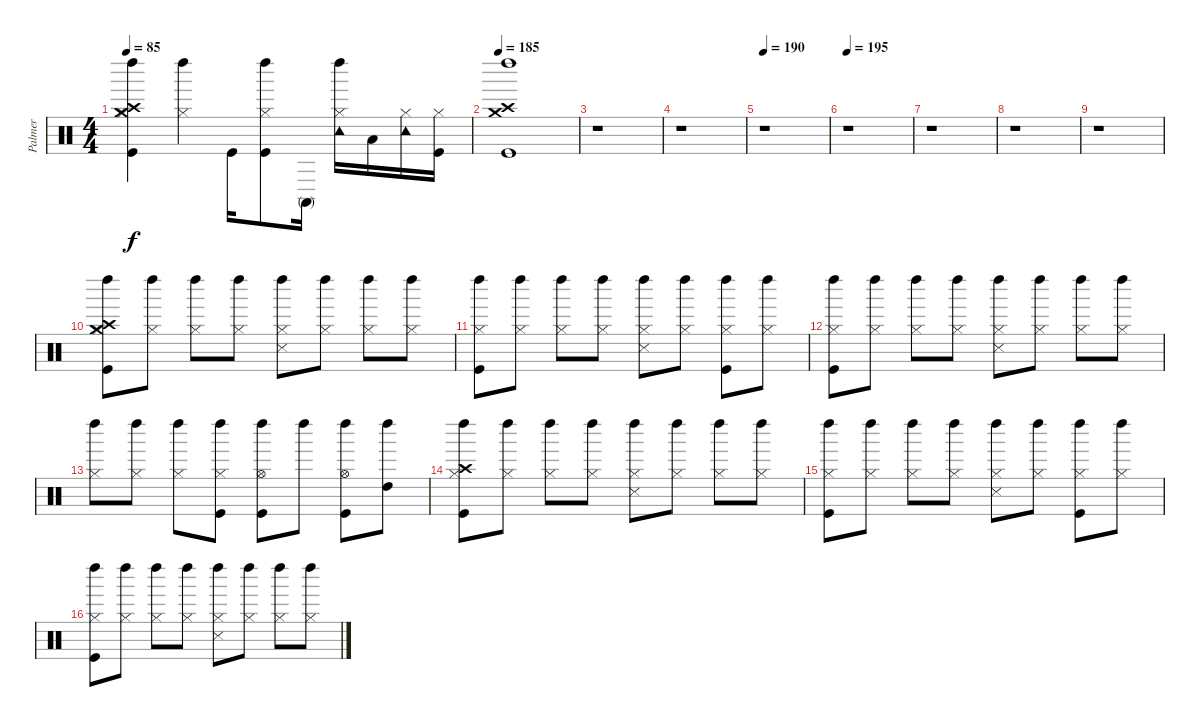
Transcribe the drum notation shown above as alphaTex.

\track ("Palmer" "Palmer") {instrument percussion}
\staff {score}
\articulation defaults
\ts (4 4)
\tempo 85
\clef neutral
\ks c
("Crash medium (hit)" "Crash high (hit)" "Kick (hit)" "Hi-Hat (closed)" "Left Maraca (hit)").4{dy f} ("Hi-Hat (closed)" "Left Maraca (hit)").4 "Kick (hit)".16 ("Kick (hit)" "Hi-Hat (closed)" "Left Maraca (hit)").8 "Conga high (mute)".16 ("Hi-Hat (closed)" "Tambourine (hit)" "Left Maraca (hit)").16 "Low Floor Tom (hit)".16 ("Tambourine (hit)" "Hi-Hat (closed)").16 ("Kick (hit)" "Hi-Hat (closed)").16 |
\tempo 185
("Crash medium (hit)" "Crash high (hit)" "Kick (hit)" "Left Maraca (hit)").1 |
r.1 |
r.1 |
\tempo 190
r.1 |
\tempo 195
r.1 |
r.1 |
r.1 |
r.1 |
("Crash medium (hit)" "Kick (hit)" "Hi-Hat (closed)" "Crash high (hit)" "Left Maraca (hit)").8 ("Hi-Hat (closed)" "Left Maraca (hit)").8 ("Hi-Hat (closed)" "Left Maraca (hit)").8 ("Hi-Hat (closed)" "Left Maraca (hit)").8 ("Hi-Hat (closed)" "Snare (side stick) 3" "Left Maraca (hit)").8 ("Hi-Hat (closed)" "Left Maraca (hit)").8 ("Hi-Hat (closed)" "Left Maraca (hit)").8 ("Hi-Hat (closed)" "Left Maraca (hit)").8 |
("Kick (hit)" "Hi-Hat (closed)" "Left Maraca (hit)").8 ("Hi-Hat (closed)" "Left Maraca (hit)").8 ("Hi-Hat (closed)" "Left Maraca (hit)").8 ("Hi-Hat (closed)" "Left Maraca (hit)").8 ("Hi-Hat (closed)" "Snare (side stick) 3" "Left Maraca (hit)").8 ("Hi-Hat (closed)" "Left Maraca (hit)").8 ("Kick (hit)" "Hi-Hat (closed)" "Left Maraca (hit)").8 ("Hi-Hat (closed)" "Left Maraca (hit)").8 |
("Kick (hit)" "Hi-Hat (closed)" "Left Maraca (hit)").8 ("Hi-Hat (closed)" "Left Maraca (hit)").8 ("Hi-Hat (closed)" "Left Maraca (hit)").8 ("Hi-Hat (closed)" "Left Maraca (hit)").8 ("Hi-Hat (closed)" "Snare (side stick) 3" "Left Maraca (hit)").8 ("Hi-Hat (closed)" "Left Maraca (hit)").8 ("Hi-Hat (closed)" "Left Maraca (hit)").8 ("Hi-Hat (closed)" "Left Maraca (hit)").8 |
("Hi-Hat (closed)" "Left Maraca (hit)").8 ("Hi-Hat (closed)" "Left Maraca (hit)").8 ("Hi-Hat (closed)" "Left Maraca (hit)").8 ("Kick (hit)" "Hi-Hat (closed)" "Left Maraca (hit)").8 ("Kick (hit)" "Hi-Hat (open)" "Left Maraca (hit)").8 "Left Maraca (hit)".8 ("Kick (hit)" "Hi-Hat (open)" "Left Maraca (hit)").8 ("High Tom (hit)" "Left Maraca (hit)").8 |
("Kick (hit)" "Hi-Hat (closed)" "Crash high (hit)" "Left Maraca (hit)").8 ("Hi-Hat (closed)" "Left Maraca (hit)").8 ("Hi-Hat (closed)" "Left Maraca (hit)").8 ("Hi-Hat (closed)" "Left Maraca (hit)").8 ("Hi-Hat (closed)" "Snare (side stick) 3" "Left Maraca (hit)").8 ("Hi-Hat (closed)" "Left Maraca (hit)").8 ("Hi-Hat (closed)" "Left Maraca (hit)").8 ("Hi-Hat (closed)" "Left Maraca (hit)").8 |
("Kick (hit)" "Hi-Hat (closed)" "Left Maraca (hit)").8 ("Hi-Hat (closed)" "Left Maraca (hit)").8 ("Hi-Hat (closed)" "Left Maraca (hit)").8 ("Hi-Hat (closed)" "Left Maraca (hit)").8 ("Hi-Hat (closed)" "Snare (side stick) 3" "Left Maraca (hit)").8 ("Hi-Hat (closed)" "Left Maraca (hit)").8 ("Kick (hit)" "Hi-Hat (closed)" "Left Maraca (hit)").8 ("Hi-Hat (closed)" "Left Maraca (hit)").8 |
("Kick (hit)" "Hi-Hat (closed)" "Left Maraca (hit)").8 ("Hi-Hat (closed)" "Left Maraca (hit)").8 ("Hi-Hat (closed)" "Left Maraca (hit)").8 ("Hi-Hat (closed)" "Left Maraca (hit)").8 ("Hi-Hat (closed)" "Snare (side stick) 3" "Left Maraca (hit)").8 ("Hi-Hat (closed)" "Left Maraca (hit)").8 ("Hi-Hat (closed)" "Left Maraca (hit)").8 ("Hi-Hat (closed)" "Left Maraca (hit)").8
